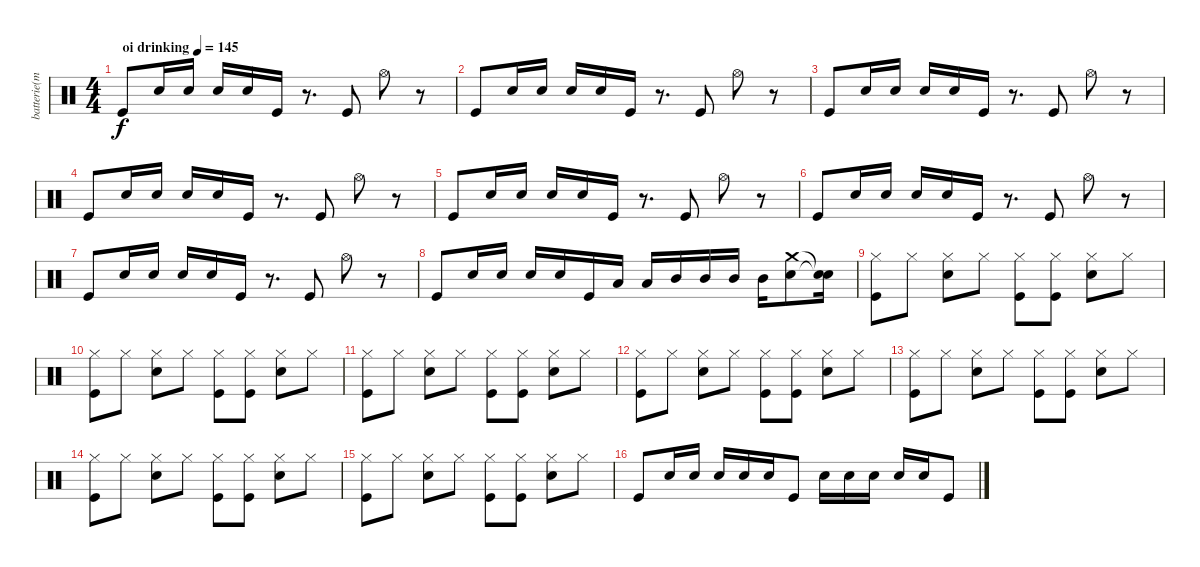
\track ("batterie(micky)" "batterie(m") {instrument percussion}
\staff {score}
\articulation defaults
\ts (4 4)
\tempo (145 "oi drinking")
\clef neutral
\ks c "Kick (hit)".8{dy f} "Snare (hit) 2".16 "Snare (hit) 2".16 "Snare (hit) 2".16 "Snare (hit) 2".16 "Kick (hit)".16
r.8{d} "Kick (hit)".8 "Hi-Hat (open)".8 r.8 |
"Kick (hit)".8 "Snare (hit) 2".16 "Snare (hit) 2".16 "Snare (hit) 2".16 "Snare (hit) 2".16 "Kick (hit)".16 r.8{d} "Kick (hit)".8 "Hi-Hat (open)".8 r.8 |
"Kick (hit)".8 "Snare (hit) 2".16 "Snare (hit) 2".16 "Snare (hit) 2".16 "Snare (hit) 2".16 "Kick (hit)".16 r.8{d} "Kick (hit)".8 "Hi-Hat (open)".8 r.8 |
"Kick (hit)".8 "Snare (hit) 2".16 "Snare (hit) 2".16 "Snare (hit) 2".16 "Snare (hit) 2".16 "Kick (hit)".16 r.8{d} "Kick (hit)".8 "Hi-Hat (open)".8 r.8 |
"Kick (hit)".8 "Snare (hit) 2".16 "Snare (hit) 2".16 "Snare (hit) 2".16 "Snare (hit) 2".16 "Kick (hit)".16 r.8{d} "Kick (hit)".8 "Hi-Hat (open)".8 r.8 |
"Kick (hit)".8 "Snare (hit) 2".16 "Snare (hit) 2".16 "Snare (hit) 2".16 "Snare (hit) 2".16 "Kick (hit)".16 r.8{d} "Kick (hit)".8 "Hi-Hat (open)".8 r.8 |
"Kick (hit)".8 "Snare (hit) 2".16 "Snare (hit) 2".16 "Snare (hit) 2".16 "Snare (hit) 2".16 "Kick (hit)".16 r.8{d} "Kick (hit)".8 "Hi-Hat (open)".8 r.8 |
"Kick (hit)".8 "Snare (hit) 2".16 "Snare (hit) 2".16 "Snare (hit) 2".16 "Snare (hit) 2".16 "Kick (hit)".16 "Low Tom (hit)".16 "Low Tom (hit)".16 "Mid Tom (hit)".16 "Mid Tom (hit)".16 "Mid Tom (hit)".16 "Mid Tom (hit)".16 ("Crash medium (hit)" "Snare (hit) 2").8 ("Snare (hit)"{t} "Snare (hit)"{t}).16 |
("Hi-Hat (closed)" "Kick (hit)").8 "Hi-Hat (closed)".8 ("Hi-Hat (closed)" "Snare (hit) 2").8 "Hi-Hat (closed)".8 ("Hi-Hat (closed)" "Kick (hit)").8 ("Hi-Hat (closed)" "Kick (hit)").8 ("Hi-Hat (closed)" "Snare (hit) 2").8 "Hi-Hat (closed)".8 |
("Hi-Hat (closed)" "Kick (hit)").8 "Hi-Hat (closed)".8 ("Hi-Hat (closed)" "Snare (hit) 2").8 "Hi-Hat (closed)".8 ("Hi-Hat (closed)" "Kick (hit)").8 ("Hi-Hat (closed)" "Kick (hit)").8 ("Hi-Hat (closed)" "Snare (hit) 2").8 "Hi-Hat (closed)".8 |
("Hi-Hat (closed)" "Kick (hit)").8 "Hi-Hat (closed)".8 ("Hi-Hat (closed)" "Snare (hit) 2").8 "Hi-Hat (closed)".8 ("Hi-Hat (closed)" "Kick (hit)").8 ("Hi-Hat (closed)" "Kick (hit)").8 ("Hi-Hat (closed)" "Snare (hit) 2").8 "Hi-Hat (closed)".8 |
("Hi-Hat (closed)" "Kick (hit)").8 "Hi-Hat (closed)".8 ("Hi-Hat (closed)" "Snare (hit) 2").8 "Hi-Hat (closed)".8 ("Hi-Hat (closed)" "Kick (hit)").8 ("Hi-Hat (closed)" "Kick (hit)").8 ("Hi-Hat (closed)" "Snare (hit) 2").8 "Hi-Hat (closed)".8 |
("Hi-Hat (closed)" "Kick (hit)").8 "Hi-Hat (closed)".8 ("Hi-Hat (closed)" "Snare (hit) 2").8 "Hi-Hat (closed)".8 ("Hi-Hat (closed)" "Kick (hit)").8 ("Hi-Hat (closed)" "Kick (hit)").8 ("Hi-Hat (closed)" "Snare (hit) 2").8 "Hi-Hat (closed)".8 |
("Hi-Hat (closed)" "Kick (hit)").8 "Hi-Hat (closed)".8 ("Hi-Hat (closed)" "Snare (hit) 2").8 "Hi-Hat (closed)".8 ("Hi-Hat (closed)" "Kick (hit)").8 ("Hi-Hat (closed)" "Kick (hit)").8 ("Hi-Hat (closed)" "Snare (hit) 2").8 "Hi-Hat (closed)".8 |
("Hi-Hat (closed)" "Kick (hit)").8 "Hi-Hat (closed)".8 ("Hi-Hat (closed)" "Snare (hit) 2").8 "Hi-Hat (closed)".8 ("Hi-Hat (closed)" "Kick (hit)").8 ("Hi-Hat (closed)" "Kick (hit)").8 ("Hi-Hat (closed)" "Snare (hit) 2").8 "Hi-Hat (closed)".8 |
"Kick (hit)".8 "Snare (hit) 2".16 "Snare (hit) 2".16 "Snare (hit) 2".16 "Snare (hit) 2".16 "Snare (hit) 2".16 "Kick (hit)".8 "Snare (hit) 2".16 "Snare (hit) 2".16 "Snare (hit) 2".16 "Snare (hit) 2".16 "Snare (hit) 2".16 "Kick (hit)".8
